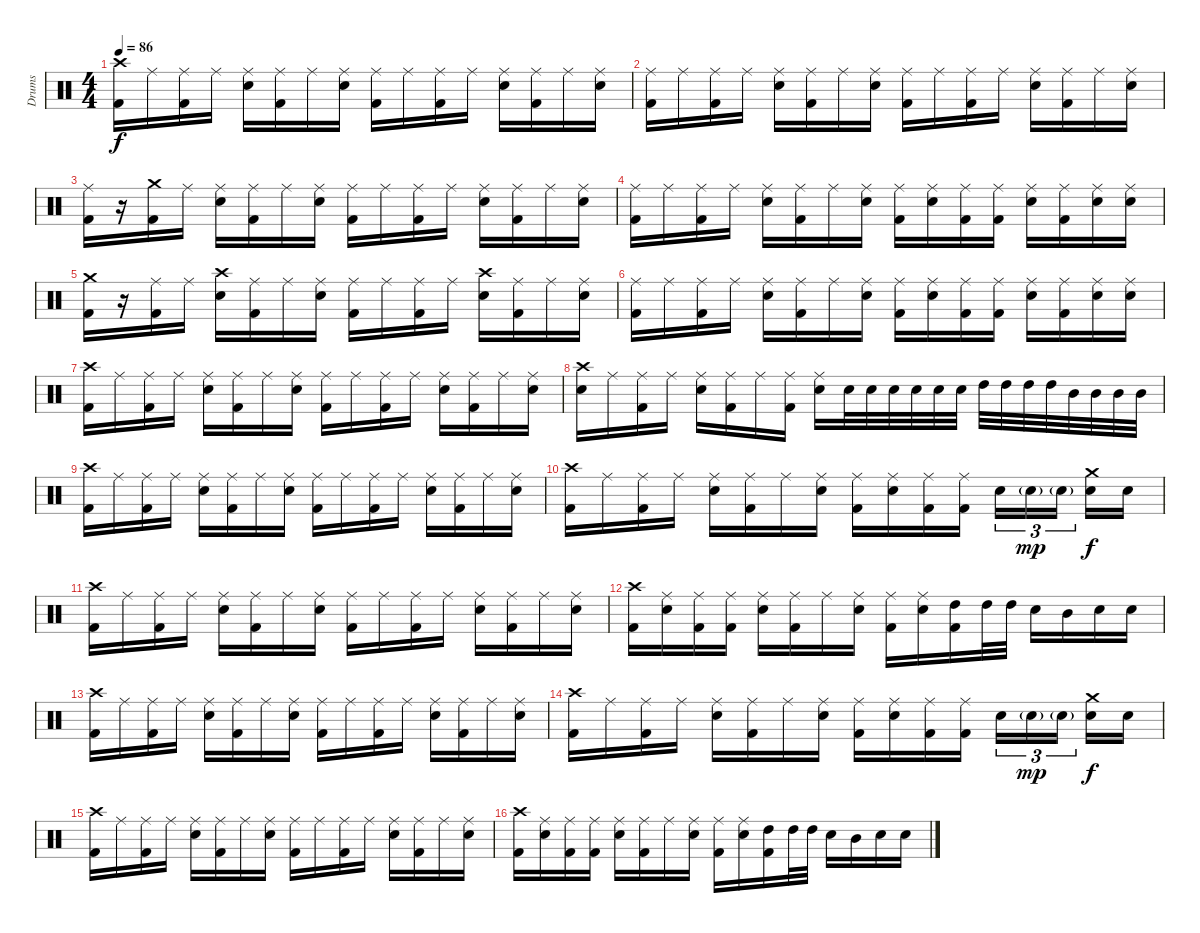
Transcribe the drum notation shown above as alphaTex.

\track ("Drums" "Drums") {instrument percussion}
\staff {score}
\articulation defaults
\ts (4 4)
\tempo 86
\clef neutral
\ks c
("Crash high (hit)" "Kick (hit) 2").16{dy f} "Ride (middle)".16 ("Ride (middle)" "Kick (hit) 2").16 "Ride (middle)".16 ("Ride (middle)" "Snare (hit) 2").16 ("Ride (middle)" "Kick (hit) 2").16 "Ride (middle)".16 ("Ride (middle)" "Snare (hit) 2").16 ("Ride (middle)" "Kick (hit) 2").16 "Ride (middle)".16 ("Ride (middle)" "Kick (hit) 2").16 "Ride (middle)".16 ("Ride (middle)" "Snare (hit) 2").16 ("Ride (middle)" "Kick (hit) 2").16 "Ride (middle)".16 ("Ride (middle)" "Snare (hit) 2").16 |
("Ride (middle)" "Kick (hit) 2").16 "Ride (middle)".16 ("Ride (middle)" "Kick (hit) 2").16 "Ride (middle)".16 ("Ride (middle)" "Snare (hit) 2").16 ("Ride (middle)" "Kick (hit) 2").16 "Ride (middle)".16 ("Ride (middle)" "Snare (hit) 2").16 ("Ride (middle)" "Kick (hit) 2").16 "Ride (middle)".16 ("Ride (middle)" "Kick (hit) 2").16 "Ride (middle)".16 ("Ride (middle)" "Snare (hit) 2").16 ("Ride (middle)" "Kick (hit) 2").16 "Ride (middle)".16 ("Ride (middle)" "Snare (hit) 2").16 |
("Ride (middle)" "Kick (hit) 2").16 r.16 ("Crash medium (hit)" "Kick (hit) 2").16 "Ride (middle)".16 ("Ride (middle)" "Snare (hit) 2").16 ("Ride (middle)" "Kick (hit) 2").16 "Ride (middle)".16 ("Ride (middle)" "Snare (hit) 2").16 ("Ride (middle)" "Kick (hit) 2").16 "Ride (middle)".16 ("Ride (middle)" "Kick (hit) 2").16 "Ride (middle)".16 ("Ride (middle)" "Snare (hit) 2").16 ("Ride (middle)" "Kick (hit) 2").16 "Ride (middle)".16 ("Ride (middle)" "Snare (hit) 2").16 |
("Ride (middle)" "Kick (hit) 2").16 "Ride (middle)".16 ("Ride (middle)" "Kick (hit) 2").16 "Ride (middle)".16 ("Ride (middle)" "Snare (hit) 2").16 ("Ride (middle)" "Kick (hit) 2").16 "Ride (middle)".16 ("Ride (middle)" "Snare (hit) 2").16 ("Ride (middle)" "Kick (hit) 2").16 ("Ride (middle)" "Snare (hit) 2").16 ("Ride (middle)" "Kick (hit) 2").16 ("Ride (middle)" "Kick (hit) 2").16 ("Ride (middle)" "Snare (hit) 2").16 ("Ride (middle)" "Kick (hit) 2").16 ("Ride (middle)" "Snare (hit) 2").16 ("Ride (middle)" "Snare (hit) 2").16 |
("Crash medium (hit)" "Kick (hit) 2").16 r.16 ("Ride (middle)" "Kick (hit) 2").16 "Ride (middle)".16 ("Crash high (hit)" "Snare (hit) 2").16 ("Ride (middle)" "Kick (hit) 2").16 "Ride (middle)".16 ("Ride (middle)" "Snare (hit) 2").16 ("Ride (middle)" "Kick (hit) 2").16 "Ride (middle)".16 ("Ride (middle)" "Kick (hit) 2").16 "Ride (middle)".16 ("Crash high (hit)" "Snare (hit) 2").16 ("Ride (middle)" "Kick (hit) 2").16 "Ride (middle)".16 ("Ride (middle)" "Snare (hit) 2").16 |
("Ride (middle)" "Kick (hit) 2").16 "Ride (middle)".16 ("Ride (middle)" "Kick (hit) 2").16 "Ride (middle)".16 ("Ride (middle)" "Snare (hit) 2").16 ("Ride (middle)" "Kick (hit) 2").16 "Ride (middle)".16 ("Ride (middle)" "Snare (hit) 2").16 ("Ride (middle)" "Kick (hit) 2").16 ("Ride (middle)" "Snare (hit) 2").16 ("Ride (middle)" "Kick (hit) 2").16 ("Ride (middle)" "Kick (hit) 2").16 ("Ride (middle)" "Snare (hit) 2").16 ("Ride (middle)" "Kick (hit) 2").16 ("Ride (middle)" "Snare (hit) 2").16 ("Ride (middle)" "Snare (hit) 2").16 |
("Crash high (hit)" "Kick (hit) 2").16 "Ride (middle)".16 ("Ride (middle)" "Kick (hit) 2").16 "Ride (middle)".16 ("Ride (middle)" "Snare (hit) 2").16 ("Ride (middle)" "Kick (hit) 2").16 "Ride (middle)".16 ("Ride (middle)" "Snare (hit) 2").16 ("Ride (middle)" "Kick (hit) 2").16 "Ride (middle)".16 ("Ride (middle)" "Kick (hit) 2").16 "Ride (middle)".16 ("Ride (middle)" "Snare (hit) 2").16 ("Ride (middle)" "Kick (hit) 2").16 "Ride (middle)".16 ("Ride (middle)" "Snare (hit) 2").16 |
("Crash high (hit)" "Snare (hit) 2").16 "Ride (middle)".16 ("Ride (middle)" "Kick (hit) 2").16 "Ride (middle)".16 ("Ride (middle)" "Snare (hit) 2").16 ("Ride (middle)" "Kick (hit) 2").16 "Ride (middle)".16 ("Ride (middle)" "Kick (hit) 2").16 ("Ride (middle)" "Snare (hit) 2").16 "Snare (hit) 2".32 "Snare (hit) 2".32 "Snare (hit) 2".32 "Snare (hit) 2".32 "Snare (hit) 2".32 "Snare (hit) 2".32 "High Tom (hit)".32 "High Tom (hit)".32 "High Tom (hit)".32 "High Tom (hit)".32 "Mid Tom (hit)".32 "Mid Tom (hit)".32 "Mid Tom (hit)".32 "Mid Tom (hit)".32 |
("Crash high (hit)" "Kick (hit) 2").16 "Ride (middle)".16 ("Ride (middle)" "Kick (hit) 2").16 "Ride (middle)".16 ("Ride (middle)" "Snare (hit) 2").16 ("Ride (middle)" "Kick (hit) 2").16 "Ride (middle)".16 ("Ride (middle)" "Snare (hit) 2").16 ("Ride (middle)" "Kick (hit) 2").16 "Ride (middle)".16 ("Ride (middle)" "Kick (hit) 2").16 "Ride (middle)".16 ("Ride (middle)" "Snare (hit) 2").16 ("Ride (middle)" "Kick (hit) 2").16 "Ride (middle)".16 ("Ride (middle)" "Snare (hit) 2").16 |
("Crash high (hit)" "Kick (hit) 2").16 "Ride (middle)".16 ("Ride (middle)" "Kick (hit) 2").16 "Ride (middle)".16 ("Ride (middle)" "Snare (hit) 2").16 ("Ride (middle)" "Kick (hit) 2").16 "Ride (middle)".16 ("Ride (middle)" "Snare (hit) 2").16 ("Ride (middle)" "Kick (hit) 2").16 ("Ride (middle)" "Snare (hit) 2").16 ("Ride (middle)" "Kick (hit) 2").16 ("Ride (middle)" "Kick (hit) 2").16 "Snare (hit) 2".16{tu (3 2)} "Snare (hit) 2"{g}.16{tu (3 2) dy mp} "Snare (hit) 2"{g}.16{tu (3 2)} ("Crash medium (hit)" "Snare (hit) 2").16{dy f} "Snare (hit) 2".16 |
("Crash high (hit)" "Kick (hit) 2").16 "Ride (middle)".16 ("Ride (middle)" "Kick (hit) 2").16 "Ride (middle)".16 ("Ride (middle)" "Snare (hit) 2").16 ("Ride (middle)" "Kick (hit) 2").16 "Ride (middle)".16 ("Ride (middle)" "Snare (hit) 2").16 ("Ride (middle)" "Kick (hit) 2").16 "Ride (middle)".16 ("Ride (middle)" "Kick (hit) 2").16 "Ride (middle)".16 ("Ride (middle)" "Snare (hit) 2").16 ("Ride (middle)" "Kick (hit) 2").16 "Ride (middle)".16 ("Ride (middle)" "Snare (hit) 2").16 |
("Crash high (hit)" "Kick (hit) 2").16 ("Ride (middle)" "Snare (hit) 2").16 ("Ride (middle)" "Kick (hit) 2").16 ("Ride (middle)" "Kick (hit) 2").16 ("Ride (middle)" "Snare (hit) 2").16 ("Ride (middle)" "Kick (hit) 2").16 "Ride (middle)".16 ("Ride (middle)" "Snare (hit) 2").16 ("Ride (middle)" "Kick (hit) 2").16 ("Ride (middle)" "Snare (hit) 2").16 ("High Tom (hit)" "Kick (hit) 2").16 "High Tom (hit)".32 "High Tom (hit)".32 "Snare (hit) 2".16 "Mid Tom (hit)".16 "Snare (hit) 2".16 "Snare (hit) 2".16 |
("Crash high (hit)" "Kick (hit) 2").16 "Ride (middle)".16 ("Ride (middle)" "Kick (hit) 2").16 "Ride (middle)".16 ("Ride (middle)" "Snare (hit) 2").16 ("Ride (middle)" "Kick (hit) 2").16 "Ride (middle)".16 ("Ride (middle)" "Snare (hit) 2").16 ("Ride (middle)" "Kick (hit) 2").16 "Ride (middle)".16 ("Ride (middle)" "Kick (hit) 2").16 "Ride (middle)".16 ("Ride (middle)" "Snare (hit) 2").16 ("Ride (middle)" "Kick (hit) 2").16 "Ride (middle)".16 ("Ride (middle)" "Snare (hit) 2").16 |
("Crash high (hit)" "Kick (hit) 2").16 "Ride (middle)".16 ("Ride (middle)" "Kick (hit) 2").16 "Ride (middle)".16 ("Ride (middle)" "Snare (hit) 2").16 ("Ride (middle)" "Kick (hit) 2").16 "Ride (middle)".16 ("Ride (middle)" "Snare (hit) 2").16 ("Ride (middle)" "Kick (hit) 2").16 ("Ride (middle)" "Snare (hit) 2").16 ("Ride (middle)" "Kick (hit) 2").16 ("Ride (middle)" "Kick (hit) 2").16 "Snare (hit) 2".16{tu (3 2)} "Snare (hit) 2"{g}.16{tu (3 2) dy mp} "Snare (hit) 2"{g}.16{tu (3 2)} ("Crash medium (hit)" "Snare (hit) 2").16{dy f} "Snare (hit) 2".16 |
("Crash high (hit)" "Kick (hit) 2").16 "Ride (middle)".16 ("Ride (middle)" "Kick (hit) 2").16 "Ride (middle)".16 ("Ride (middle)" "Snare (hit) 2").16 ("Ride (middle)" "Kick (hit) 2").16 "Ride (middle)".16 ("Ride (middle)" "Snare (hit) 2").16 ("Ride (middle)" "Kick (hit) 2").16 "Ride (middle)".16 ("Ride (middle)" "Kick (hit) 2").16 "Ride (middle)".16 ("Ride (middle)" "Snare (hit) 2").16 ("Ride (middle)" "Kick (hit) 2").16 "Ride (middle)".16 ("Ride (middle)" "Snare (hit) 2").16 |
("Crash high (hit)" "Kick (hit) 2").16 ("Ride (middle)" "Snare (hit) 2").16 ("Ride (middle)" "Kick (hit) 2").16 ("Ride (middle)" "Kick (hit) 2").16 ("Ride (middle)" "Snare (hit) 2").16 ("Ride (middle)" "Kick (hit) 2").16 "Ride (middle)".16 ("Ride (middle)" "Snare (hit) 2").16 ("Ride (middle)" "Kick (hit) 2").16 ("Ride (middle)" "Snare (hit) 2").16 ("High Tom (hit)" "Kick (hit) 2").16 "High Tom (hit)".32 "High Tom (hit)".32 "Snare (hit) 2".16 "Mid Tom (hit)".16 "Snare (hit) 2".16 "Snare (hit) 2".16
